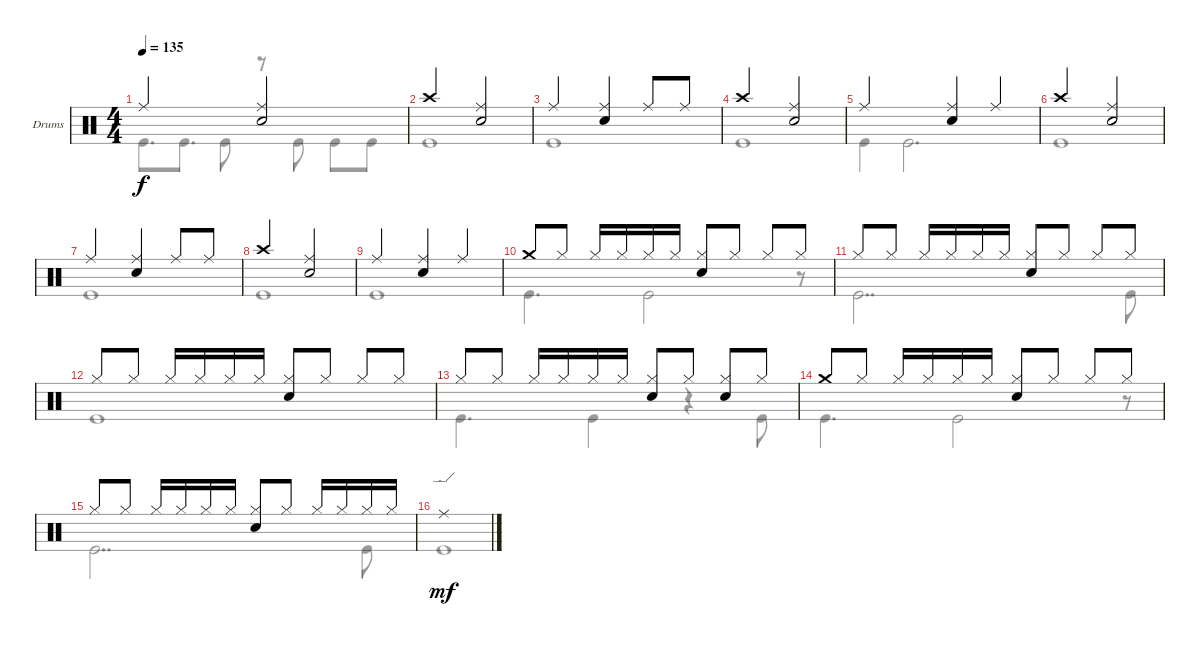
\defaultSystemsLayout 4
\bracketExtendMode groupsimilarinstruments
\firstSystemTrackNameOrientation horizontal
\otherSystemsTrackNameOrientation horizontal
\track ("Drumkit" "Drums") {instrument percussion}
\staff {score}
\articulation defaults
\voice
\ts (4 4)
\tempo 135
\clef neutral
\ks c "Ride (middle)".2{dy f}
("Ride (middle)" "Snare (hit) 2").2 |
"Crash high (hit)".2 ("Ride (middle)" "Snare (hit) 2").2 |
"Ride (middle)".2 ("Ride (middle)" "Snare (hit) 2").4 "Ride (middle)".8 "Ride (middle)".8 |
"Crash high (hit)".2 ("Ride (middle)" "Snare (hit) 2").2 |
"Ride (middle)".2 ("Ride (middle)" "Snare (hit) 2").4 "Ride (middle)".4 |
"Crash high (hit)".2 ("Ride (middle)" "Snare (hit) 2").2 |
"Ride (middle)".2 ("Ride (middle)" "Snare (hit) 2").4 "Ride (middle)".8 "Ride (middle)".8 |
"Crash high (hit)".2 ("Ride (middle)" "Snare (hit) 2").2 |
"Ride (middle)".2 ("Ride (middle)" "Snare (hit) 2").4 "Ride (middle)".4 |
"Crash medium (hit)".8 "Hi-Hat (closed)".8 "Hi-Hat (closed)".16 "Hi-Hat (closed)".16 "Hi-Hat (closed)".16 "Hi-Hat (closed)".16 ("Hi-Hat (closed)" "Snare (hit) 2").8 "Hi-Hat (closed)".8 "Hi-Hat (closed)".8 "Hi-Hat (closed)".8 |
"Hi-Hat (closed)".8 "Hi-Hat (closed)".8 "Hi-Hat (closed)".16 "Hi-Hat (closed)".16 "Hi-Hat (closed)".16 "Hi-Hat (closed)".16 ("Hi-Hat (closed)" "Snare (hit) 2").8 "Hi-Hat (closed)".8 "Hi-Hat (closed)".8 "Hi-Hat (closed)".8 |
"Hi-Hat (closed)".8 "Hi-Hat (closed)".8 "Hi-Hat (closed)".16 "Hi-Hat (closed)".16 "Hi-Hat (closed)".16 "Hi-Hat (closed)".16 ("Hi-Hat (closed)" "Snare (hit) 2").8 "Hi-Hat (closed)".8 "Hi-Hat (closed)".8 "Hi-Hat (closed)".8 |
"Hi-Hat (closed)".8 "Hi-Hat (closed)".8 "Hi-Hat (closed)".16 "Hi-Hat (closed)".16 "Hi-Hat (closed)".16 "Hi-Hat (closed)".16 ("Hi-Hat (closed)" "Snare (hit) 2").8 "Hi-Hat (closed)".8 ("Hi-Hat (closed)" "Snare (hit) 2").8 "Hi-Hat (closed)".8 |
"Crash medium (hit)".8 "Hi-Hat (closed)".8 "Hi-Hat (closed)".16 "Hi-Hat (closed)".16 "Hi-Hat (closed)".16 "Hi-Hat (closed)".16 ("Hi-Hat (closed)" "Snare (hit) 2").8 "Hi-Hat (closed)".8 "Hi-Hat (closed)".8 "Hi-Hat (closed)".8 |
"Hi-Hat (closed)".8 "Hi-Hat (closed)".8 "Hi-Hat (closed)".16 "Hi-Hat (closed)".16 "Hi-Hat (closed)".16 "Hi-Hat (closed)".16 ("Hi-Hat (closed)" "Snare (hit) 2").8 "Hi-Hat (closed)".8 "Hi-Hat (closed)".16 "Hi-Hat (closed)".16 "Hi-Hat (closed)".16 "Hi-Hat (closed)".16 |
"Ride (edge)".1{dy mf}
\voice
\clef neutral
\ottava regular
\simile none
\ks c "Kick (hit)".8{d dy f} "Kick (hit)".8{d} "Kick (hit)".8
r.8 "Kick (hit)".8 "Kick (hit)".8 "Kick (hit)".8 |
"Kick (hit)".1 |
"Kick (hit)".1 |
"Kick (hit)".1 |
"Kick (hit)".4 "Kick (hit)".2{d} |
"Kick (hit)".1 |
"Kick (hit)".1 |
"Kick (hit)".1 |
"Kick (hit)".1 |
"Kick (hit)".4{d} "Kick (hit)".2 r.8 |
"Kick (hit)".2{dd} "Kick (hit)".8 |
"Kick (hit)".1 |
"Kick (hit)".4{d} "Kick (hit)".4 r.4 "Kick (hit)".8 |
"Kick (hit)".4{d} "Kick (hit)".2 r.8 |
"Kick (hit)".2{dd} "Kick (hit)".8 |
"Kick (hit)".1
